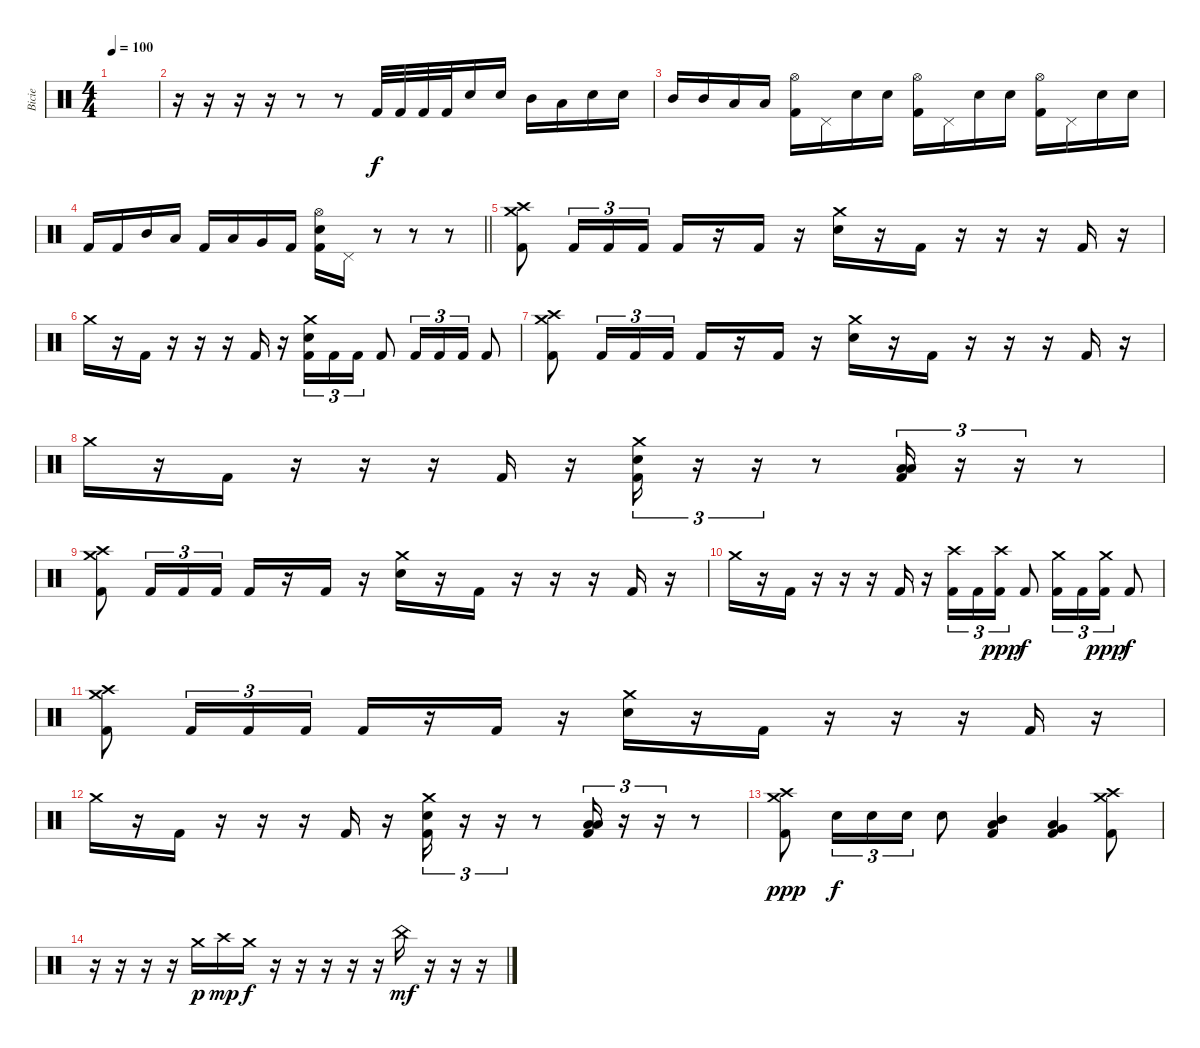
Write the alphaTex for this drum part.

\track ("Bicie" "Bicie") {instrument percussion}
\staff {score}
\articulation defaults
\ts (4 4)
\tempo 100
\clef neutral
\ks c
|
r.16 r.16 r.16 r.16 r.8 r.8 "Kick (hit) 2".32 "Kick (hit) 2".32 "Kick (hit) 2".32 "Kick (hit) 2".32 "Snare (hit) 2".16 "Snare (hit) 2".16 "Mid Tom (hit)".16 "Low Tom (hit)".16 "Snare (hit) 2".16 "Snare (hit) 2".16 |
"Mid Tom (hit)".16 "Mid Tom (hit)".16 "Low Tom (hit)".16 "Low Tom (hit)".16 ("Hi-Hat (open)" "Kick (hit) 2").16 "Pedal Hi-Hat (hit)".16 "Snare (hit) 2".16 "Snare (hit) 2".16 ("Hi-Hat (open)" "Kick (hit) 2").16 "Pedal Hi-Hat (hit)".16 "Snare (hit) 2".16 "Snare (hit) 2".16 ("Hi-Hat (open)" "Kick (hit) 2").16 "Pedal Hi-Hat (hit)".16 "Snare (hit) 2".16 "Snare (hit) 2".16 |
\barLineRight lightlight "Kick (hit) 2".16 "Kick (hit) 2".16 "Mid Tom (hit)".16 "Low Tom (hit)".16 "Kick (hit) 2".16 "Low Tom (hit)".16 "Very Low Tom (hit)".16 "Kick (hit) 2".16
("Hi-Hat (open)" "Snare (hit) 2" "Kick (hit) 2").16 "Pedal Hi-Hat (hit)".16 r.8 r.8 r.8 |
("Crash medium (hit)" "Crash high (hit)" "Kick (hit) 2").8 "Kick (hit) 2".16{tu (3 2)} "Kick (hit) 2".16{tu (3 2)} "Kick (hit) 2".16{tu (3 2)} "Kick (hit) 2".16 r.16 "Kick (hit) 2".16 r.16 ("Crash medium (hit)" "Snare (hit) 2").16 r.16 "Kick (hit) 2".16 r.16 r.16 r.16 "Kick (hit) 2".16 r.16 |
"Crash medium (hit)".16 r.16 "Kick (hit) 2".16 r.16 r.16 r.16 "Kick (hit) 2".16 r.16 ("Crash medium (hit)" "Snare (hit) 2" "Kick (hit) 2").16{tu (3 2)} "Kick (hit) 2".16{tu (3 2)} "Kick (hit) 2".16{tu (3 2)} "Kick (hit) 2".8 "Kick (hit) 2".16{tu (3 2)} "Kick (hit) 2".16{tu (3 2)} "Kick (hit) 2".16{tu (3 2)} "Kick (hit) 2".8 |
("Crash medium (hit)" "Crash high (hit)" "Kick (hit) 2").8 "Kick (hit) 2".16{tu (3 2)} "Kick (hit) 2".16{tu (3 2)} "Kick (hit) 2".16{tu (3 2)} "Kick (hit) 2".16 r.16 "Kick (hit) 2".16 r.16 ("Crash medium (hit)" "Snare (hit) 2").16 r.16 "Kick (hit) 2".16 r.16 r.16 r.16 "Kick (hit) 2".16 r.16 |
"Crash medium (hit)".16 r.16 "Kick (hit) 2".16 r.16 r.16 r.16 "Kick (hit) 2".16 r.16 ("Crash medium (hit)" "Snare (hit) 2" "Kick (hit) 2").16{tu (3 2)} r.16{tu (3 2)} r.16{tu (3 2)} r.8 ("Low Tom (hit)" "Low Floor Tom (hit)" "Kick (hit) 2").16{tu (3 2)} r.16{tu (3 2)} r.16{tu (3 2)} r.8 |
("Crash medium (hit)" "Crash high (hit)" "Kick (hit) 2").8 "Kick (hit) 2".16{tu (3 2)} "Kick (hit) 2".16{tu (3 2)} "Kick (hit) 2".16{tu (3 2)} "Kick (hit) 2".16 r.16 "Kick (hit) 2".16 r.16 ("Crash medium (hit)" "Snare (hit) 2").16 r.16 "Kick (hit) 2".16 r.16 r.16 r.16 "Kick (hit) 2".16 r.16 |
"Crash medium (hit)".16 r.16 "Kick (hit) 2".16 r.16 r.16 r.16 "Kick (hit) 2".16 r.16 ("Crash high (hit)" "Kick (hit) 2").16{tu (3 2)} "Kick (hit) 2".16{tu (3 2)} ("Crash high (hit)" "Kick (hit) 2").16{tu (3 2) dy ppp} "Kick (hit) 2".8{dy f} ("Crash medium (hit)" "Kick (hit) 2").16{tu (3 2)} "Kick (hit) 2".16{tu (3 2)} ("Crash medium (hit)" "Kick (hit) 2").16{tu (3 2) dy ppp} "Kick (hit) 2".8{dy f} |
("Crash medium (hit)" "Crash high (hit)" "Kick (hit) 2").8 "Kick (hit) 2".16{tu (3 2)} "Kick (hit) 2".16{tu (3 2)} "Kick (hit) 2".16{tu (3 2)} "Kick (hit) 2".16 r.16 "Kick (hit) 2".16 r.16 ("Crash medium (hit)" "Snare (hit) 2").16 r.16 "Kick (hit) 2".16 r.16 r.16 r.16 "Kick (hit) 2".16 r.16 |
"Crash medium (hit)".16 r.16 "Kick (hit) 2".16 r.16 r.16 r.16 "Kick (hit) 2".16 r.16 ("Crash medium (hit)" "Snare (hit) 2" "Kick (hit) 2").16{tu (3 2)} r.16{tu (3 2)} r.16{tu (3 2)} r.8 ("Low Tom (hit)" "Low Floor Tom (hit)" "Kick (hit) 2").16{tu (3 2)} r.16{tu (3 2)} r.16{tu (3 2)} r.8 |
("Crash medium (hit)" "Crash high (hit)" "Kick (hit) 2").8{dy ppp} "Snare (hit) 2".16{tu (3 2) dy f} "Snare (hit) 2".16{tu (3 2)} "Snare (hit) 2".16{tu (3 2)} "Snare (hit) 2".8 ("Mid Tom (hit)" "Low Tom (hit)" "Kick (hit) 2").4 ("Very Low Tom (hit)" "Low Floor Tom (hit)" "Kick (hit) 2").4 ("Crash medium (hit)" "Crash high (hit)" "Kick (hit) 2").8 |
r.16 r.16 r.16 r.16 "Crash medium (hit)".16{dy p} "Crash high (hit)".16{dy mp} "Crash medium (hit)".16{dy f} r.16 r.16 r.16 r.16 r.16 "China (hit)".16{dy mf} r.16 r.16 r.16
